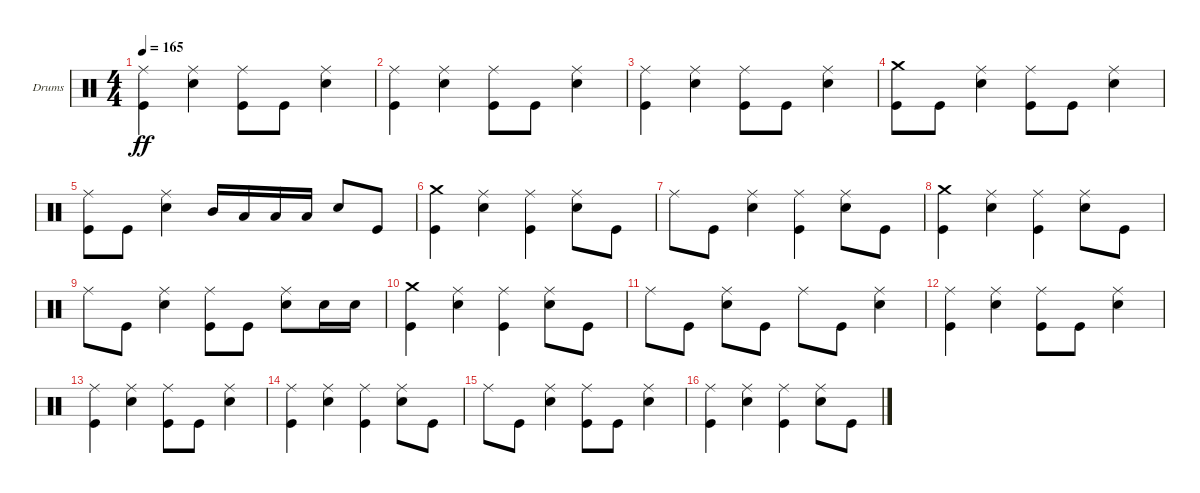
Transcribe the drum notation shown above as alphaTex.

\bracketExtendMode groupsimilarinstruments
\firstSystemTrackNameOrientation horizontal
\otherSystemsTrackNameOrientation horizontal
\track ("Drumkit" "Drums") {instrument percussion}
\staff {score}
\articulation defaults
\ts (4 4)
\tempo 165
\clef neutral
\ks c
("Ride (middle)" "Kick (hit)").4{dy ff} ("Ride (middle)" "Snare (hit) 2").4 ("Ride (middle)" "Kick (hit)").8 "Kick (hit)".8 ("Snare (hit) 2" "Ride (middle)").4 |
("Ride (middle)" "Kick (hit)").4 ("Ride (middle)" "Snare (hit) 2").4 ("Ride (middle)" "Kick (hit)").8 "Kick (hit)".8 ("Snare (hit) 2" "Ride (middle)").4 |
("Ride (middle)" "Kick (hit)").4 ("Ride (middle)" "Snare (hit) 2").4 ("Ride (middle)" "Kick (hit)").8 "Kick (hit)".8 ("Snare (hit) 2" "Ride (middle)").4 |
("Kick (hit)" "Crash medium (hit)").8 "Kick (hit)".8 ("Snare (hit) 2" "Ride (middle)").4 ("Kick (hit)" "Ride (middle)").8 "Kick (hit)".8 ("Snare (hit) 2" "Ride (middle)").4 |
("Ride (middle)" "Kick (hit)").8 "Kick (hit)".8 ("Snare (hit) 2" "Ride (middle)").4 "Mid Tom (hit)".16 "Low Tom (hit)".16 "Low Tom (hit)".16 "Low Tom (hit)".16 "Snare (hit) 2".8 "Kick (hit)".8 |
("Kick (hit)" "Crash medium (hit)").4 ("Snare (hit) 2" "Ride (middle)").4 ("Ride (middle)" "Kick (hit)").4 ("Ride (middle)" "Snare (hit) 2").8 "Kick (hit)".8 |
"Ride (middle)".8 "Kick (hit)".8 ("Snare (hit) 2" "Ride (middle)").4 ("Kick (hit)" "Ride (middle)").4 ("Snare (hit) 2" "Ride (middle)").8 "Kick (hit)".8 |
("Kick (hit)" "Crash medium (hit)").4 ("Snare (hit) 2" "Ride (middle)").4 ("Ride (middle)" "Kick (hit)").4 ("Snare (hit) 2" "Ride (middle)").8 "Kick (hit)".8 |
"Ride (middle)".8 "Kick (hit)".8 ("Ride (middle)" "Snare (hit) 2").4 ("Kick (hit)" "Ride (middle)").8 "Kick (hit)".8 ("Snare (hit) 2" "Ride (middle)").8 "Snare (hit) 2".16 "Snare (hit) 2".16 |
("Kick (hit)" "Crash medium (hit)").4 ("Snare (hit) 2" "Ride (middle)").4 ("Kick (hit)" "Ride (middle)").4 ("Snare (hit) 2" "Ride (middle)").8 "Kick (hit)".8 |
"Ride (middle)".8 "Kick (hit)".8 ("Ride (middle)" "Snare (hit) 2").8 "Kick (hit)".8 "Ride (middle)".8 "Kick (hit)".8 ("Ride (middle)" "Snare (hit) 2").4 |
("Kick (hit)" "Ride (middle)").4 ("Snare (hit) 2" "Ride (middle)").4 ("Ride (middle)" "Kick (hit)").8 "Kick (hit)".8 ("Ride (middle)" "Snare (hit) 2").4 |
("Ride (middle)" "Kick (hit)").4 ("Snare (hit) 2" "Ride (middle)").4 ("Ride (middle)" "Kick (hit)").8 "Kick (hit)".8 ("Snare (hit) 2" "Ride (middle)").4 |
("Kick (hit)" "Ride (middle)").4 ("Ride (middle)" "Snare (hit) 2").4 ("Kick (hit)" "Ride (middle)").4 ("Ride (middle)" "Snare (hit) 2").8 "Kick (hit)".8 |
"Ride (middle)".8 "Kick (hit)".8 ("Ride (middle)" "Snare (hit) 2").4 ("Ride (middle)" "Kick (hit)").8 "Kick (hit)".8 ("Snare (hit) 2" "Ride (middle)").4 |
("Kick (hit)" "Ride (middle)").4 ("Snare (hit) 2" "Ride (middle)").4 ("Ride (middle)" "Kick (hit)").4 ("Ride (middle)" "Snare (hit) 2").8 "Kick (hit)".8
